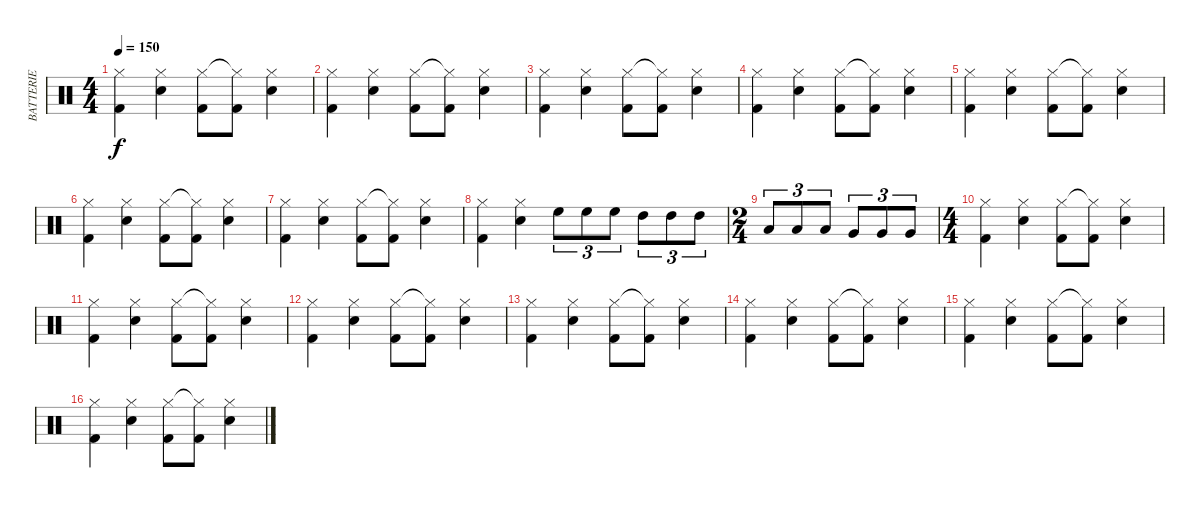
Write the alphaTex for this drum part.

\track ("BATTERIE" "BATTERIE") {instrument percussion}
\staff {score}
\articulation defaults
\ts (4 4)
\tempo 150
\clef neutral
\ks c
("Hi-Hat (closed)" "Kick (hit) 2").4{dy f} ("Hi-Hat (closed)" "Snare (hit) 2").4 ("Hi-Hat (closed)" "Kick (hit) 2").8 ("Hi-Hat (closed)"{t} "Kick (hit) 2").8 ("Hi-Hat (closed)" "Snare (hit) 2").4 |
("Hi-Hat (closed)" "Kick (hit) 2").4 ("Hi-Hat (closed)" "Snare (hit) 2").4 ("Hi-Hat (closed)" "Kick (hit) 2").8 ("Hi-Hat (closed)"{t} "Kick (hit) 2").8 ("Hi-Hat (closed)" "Snare (hit) 2").4 |
("Hi-Hat (closed)" "Kick (hit) 2").4 ("Hi-Hat (closed)" "Snare (hit) 2").4 ("Hi-Hat (closed)" "Kick (hit) 2").8 ("Hi-Hat (closed)"{t} "Kick (hit) 2").8 ("Hi-Hat (closed)" "Snare (hit) 2").4 |
("Hi-Hat (closed)" "Kick (hit) 2").4 ("Hi-Hat (closed)" "Snare (hit) 2").4 ("Hi-Hat (closed)" "Kick (hit) 2").8 ("Hi-Hat (closed)"{t} "Kick (hit) 2").8 ("Hi-Hat (closed)" "Snare (hit) 2").4 |
("Hi-Hat (closed)" "Kick (hit) 2").4 ("Hi-Hat (closed)" "Snare (hit) 2").4 ("Hi-Hat (closed)" "Kick (hit) 2").8 ("Hi-Hat (closed)"{t} "Kick (hit) 2").8 ("Hi-Hat (closed)" "Snare (hit) 2").4 |
("Hi-Hat (closed)" "Kick (hit) 2").4 ("Hi-Hat (closed)" "Snare (hit) 2").4 ("Hi-Hat (closed)" "Kick (hit) 2").8 ("Hi-Hat (closed)"{t} "Kick (hit) 2").8 ("Hi-Hat (closed)" "Snare (hit) 2").4 |
("Hi-Hat (closed)" "Kick (hit) 2").4 ("Hi-Hat (closed)" "Snare (hit) 2").4 ("Hi-Hat (closed)" "Kick (hit) 2").8 ("Hi-Hat (closed)"{t} "Kick (hit) 2").8 ("Hi-Hat (closed)" "Snare (hit) 2").4 |
("Hi-Hat (closed)" "Kick (hit) 2").4 ("Hi-Hat (closed)" "Snare (hit) 2").4 "High Floor Tom (hit)".8{tu (3 2)} "High Floor Tom (hit)".8{tu (3 2)} "High Floor Tom (hit)".8{tu (3 2)} "High Tom (hit)".8{tu (3 2)} "High Tom (hit)".8{tu (3 2)} "High Tom (hit)".8{tu (3 2)} |
\ts (2 4)
"Low Tom (hit)".8{tu (3 2)} "Low Tom (hit)".8{tu (3 2)} "Low Tom (hit)".8{tu (3 2)} "Very Low Tom (hit)".8{tu (3 2)} "Very Low Tom (hit)".8{tu (3 2)} "Very Low Tom (hit)".8{tu (3 2)} |
\ts (4 4)
("Hi-Hat (closed)" "Kick (hit) 2").4 ("Hi-Hat (closed)" "Snare (hit) 2").4 ("Hi-Hat (closed)" "Kick (hit) 2").8 ("Hi-Hat (closed)"{t} "Kick (hit) 2").8 ("Hi-Hat (closed)" "Snare (hit) 2").4 |
("Hi-Hat (closed)" "Kick (hit) 2").4 ("Hi-Hat (closed)" "Snare (hit) 2").4 ("Hi-Hat (closed)" "Kick (hit) 2").8 ("Hi-Hat (closed)"{t} "Kick (hit) 2").8 ("Hi-Hat (closed)" "Snare (hit) 2").4 |
("Hi-Hat (closed)" "Kick (hit) 2").4 ("Hi-Hat (closed)" "Snare (hit) 2").4 ("Hi-Hat (closed)" "Kick (hit) 2").8 ("Hi-Hat (closed)"{t} "Kick (hit) 2").8 ("Hi-Hat (closed)" "Snare (hit) 2").4 |
("Hi-Hat (closed)" "Kick (hit) 2").4 ("Hi-Hat (closed)" "Snare (hit) 2").4 ("Hi-Hat (closed)" "Kick (hit) 2").8 ("Hi-Hat (closed)"{t} "Kick (hit) 2").8 ("Hi-Hat (closed)" "Snare (hit) 2").4 |
("Hi-Hat (closed)" "Kick (hit) 2").4 ("Hi-Hat (closed)" "Snare (hit) 2").4 ("Hi-Hat (closed)" "Kick (hit) 2").8 ("Hi-Hat (closed)"{t} "Kick (hit) 2").8 ("Hi-Hat (closed)" "Snare (hit) 2").4 |
("Hi-Hat (closed)" "Kick (hit) 2").4 ("Hi-Hat (closed)" "Snare (hit) 2").4 ("Hi-Hat (closed)" "Kick (hit) 2").8 ("Hi-Hat (closed)"{t} "Kick (hit) 2").8 ("Hi-Hat (closed)" "Snare (hit) 2").4 |
("Hi-Hat (closed)" "Kick (hit) 2").4 ("Hi-Hat (closed)" "Snare (hit) 2").4 ("Hi-Hat (closed)" "Kick (hit) 2").8 ("Hi-Hat (closed)"{t} "Kick (hit) 2").8 ("Hi-Hat (closed)" "Snare (hit) 2").4
